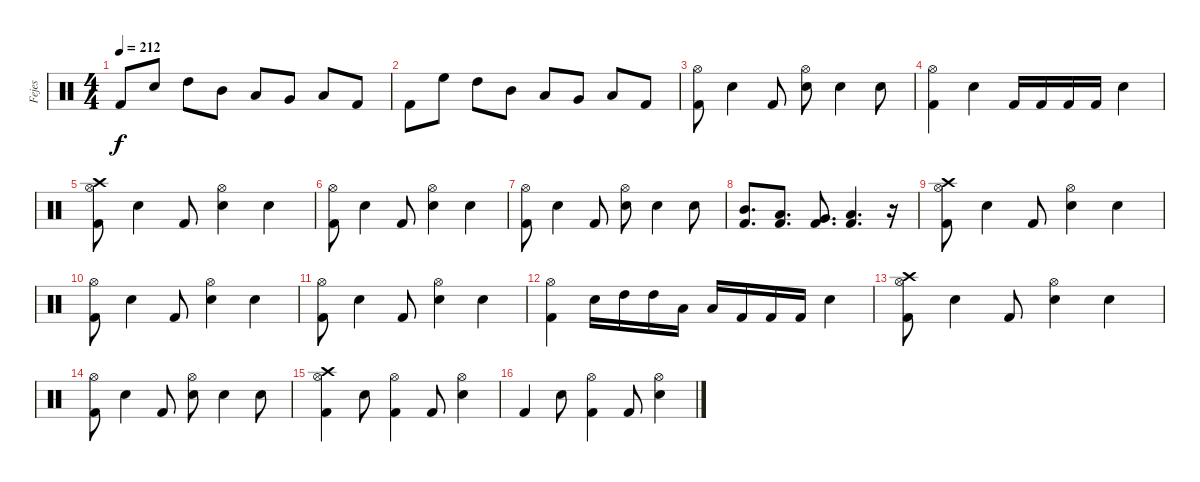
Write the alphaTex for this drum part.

\track ("Fejes" "Fejes") {instrument percussion}
\staff {score}
\articulation defaults
\ts (4 4)
\tempo 212
\clef neutral
\ks c "Kick (hit) 2".8{dy f} "Snare (hit) 2".8 "High Tom (hit)".8 "Mid Tom (hit)".8 "Low Tom (hit)".8 "Very Low Tom (hit)".8 "Low Floor Tom (hit)".8 "Kick (hit) 2".8
|
"Kick (hit) 2".8 "High Floor Tom (hit)".8 "High Tom (hit)".8 "Mid Tom (hit)".8 "Low Tom (hit)".8 "Very Low Tom (hit)".8 "Low Floor Tom (hit)".8 "Kick (hit) 2".8 |
("Hi-Hat (open)" "Kick (hit) 2").8 "Snare (hit) 2".4 "Kick (hit) 2".8 ("Hi-Hat (open)" "Snare (hit) 2").8 "Snare (hit) 2".4 "Snare (hit) 2".8 |
("Hi-Hat (open)" "Kick (hit) 2").4 "Snare (hit) 2".4 "Kick (hit) 2".16 "Kick (hit) 2".16 "Kick (hit) 2".16 "Kick (hit) 2".16 "Snare (hit) 2".4 |
("Crash high (hit)" "Hi-Hat (open)" "Kick (hit) 2").8 "Snare (hit) 2".4 "Kick (hit) 2".8 ("Hi-Hat (open)" "Snare (hit) 2").4 "Snare (hit) 2".4 |
("Hi-Hat (open)" "Kick (hit) 2").8 "Snare (hit) 2".4 "Kick (hit) 2".8 ("Hi-Hat (open)" "Snare (hit) 2").4 "Snare (hit) 2".4 |
("Hi-Hat (open)" "Kick (hit) 2").8 "Snare (hit) 2".4 "Kick (hit) 2".8 ("Hi-Hat (open)" "Snare (hit) 2").8 "Snare (hit) 2".4 "Snare (hit) 2".8 |
("Mid Tom (hit)" "Kick (hit) 2").8{d} ("Low Tom (hit)" "Kick (hit) 2").8{d} ("Very Low Tom (hit)" "Kick (hit) 2").8{d} ("Low Floor Tom (hit)" "Kick (hit) 2").4{d} r.16 |
("Crash high (hit)" "Hi-Hat (open)" "Kick (hit) 2").8 "Snare (hit) 2".4 "Kick (hit) 2".8 ("Hi-Hat (open)" "Snare (hit) 2").4 "Snare (hit) 2".4 |
("Hi-Hat (open)" "Kick (hit) 2").8 "Snare (hit) 2".4 "Kick (hit) 2".8 ("Hi-Hat (open)" "Snare (hit) 2").4 "Snare (hit) 2".4 |
("Hi-Hat (open)" "Kick (hit) 2").8 "Snare (hit) 2".4 "Kick (hit) 2".8 ("Hi-Hat (open)" "Snare (hit) 2").4 "Snare (hit) 2".4 |
("Hi-Hat (open)" "Kick (hit) 2").4 "Snare (hit) 2".16 "High Tom (hit)".16 "High Tom (hit)".16 "Low Tom (hit)".16 "Low Tom (hit)".16 "Kick (hit) 2".16 "Kick (hit) 2".16 "Kick (hit) 2".16 "Snare (hit) 2".4 |
("Crash high (hit)" "Hi-Hat (open)" "Kick (hit) 2").8 "Snare (hit) 2".4 "Kick (hit) 2".8 ("Hi-Hat (open)" "Snare (hit) 2").4 "Snare (hit) 2".4 |
("Hi-Hat (open)" "Kick (hit) 2").8 "Snare (hit) 2".4 "Kick (hit) 2".8 ("Hi-Hat (open)" "Snare (hit) 2").8 "Snare (hit) 2".4 "Snare (hit) 2".8 |
("Crash high (hit)" "Hi-Hat (open)" "Kick (hit) 2").4 "Snare (hit) 2".8 ("Hi-Hat (open)" "Kick (hit) 2").4 "Kick (hit) 2".8 ("Hi-Hat (open)" "Snare (hit) 2").4 |
"Kick (hit) 2".4 "Snare (hit) 2".8 ("Hi-Hat (open)" "Kick (hit) 2").4 "Kick (hit) 2".8 ("Hi-Hat (open)" "Snare (hit) 2").4
